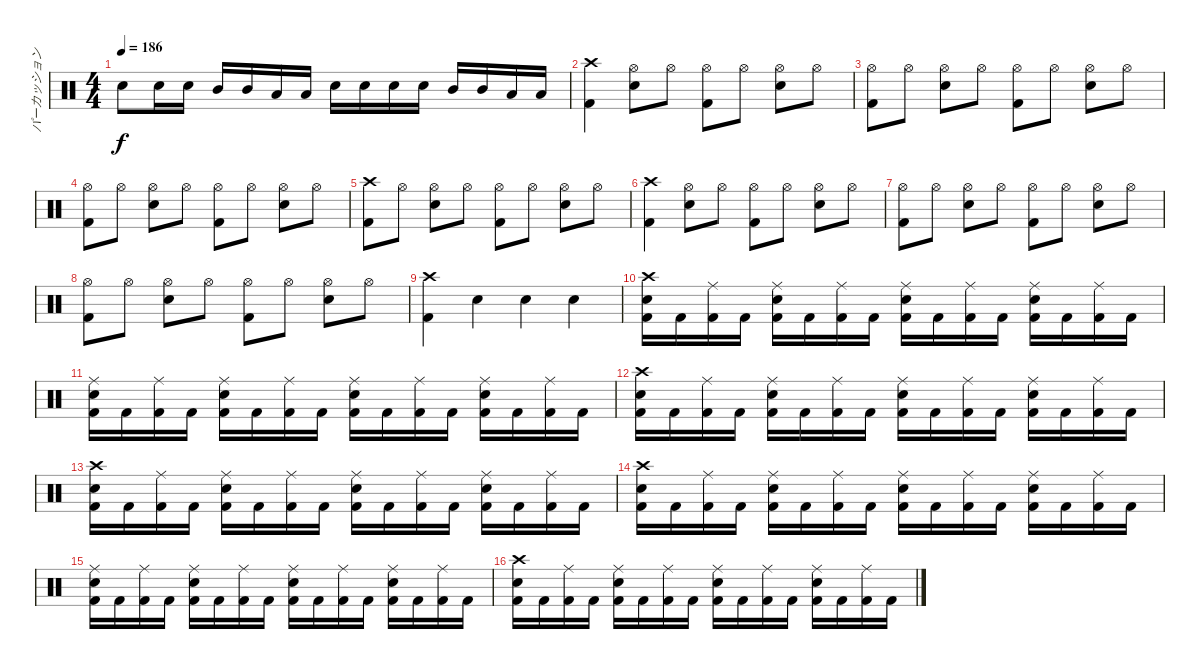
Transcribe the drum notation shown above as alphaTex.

\track ("パーカッション" "パーカッション") {instrument percussion}
\staff {score}
\articulation defaults
\ts (4 4)
\tempo 186
\clef neutral
\ks c "Snare (hit) 2".8{dy f} "Snare (hit) 2".16 "Snare (hit) 2".16 "Mid Tom (hit)".16 "Mid Tom (hit)".16 "Low Tom (hit)".16 "Low Tom (hit)".16 "Snare (hit) 2".16 "Snare (hit) 2".16 "Snare (hit) 2".16 "Snare (hit) 2".16 "Mid Tom (hit)".16 "Mid Tom (hit)".16 "Low Tom (hit)".16 "Low Tom (hit)".16
|
("Crash high (hit)" "Kick (hit) 2").4 ("Hi-Hat (open)" "Snare (hit) 2").8 "Hi-Hat (open)".8 ("Hi-Hat (open)" "Kick (hit) 2").8 "Hi-Hat (open)".8 ("Hi-Hat (open)" "Snare (hit) 2").8 "Hi-Hat (open)".8 |
("Hi-Hat (open)" "Kick (hit) 2").8 "Hi-Hat (open)".8 ("Hi-Hat (open)" "Snare (hit) 2").8 "Hi-Hat (open)".8 ("Hi-Hat (open)" "Kick (hit) 2").8 "Hi-Hat (open)".8 ("Hi-Hat (open)" "Snare (hit) 2").8 "Hi-Hat (open)".8 |
("Hi-Hat (open)" "Kick (hit) 2").8 "Hi-Hat (open)".8 ("Hi-Hat (open)" "Snare (hit) 2").8 "Hi-Hat (open)".8 ("Hi-Hat (open)" "Kick (hit) 2").8 "Hi-Hat (open)".8 ("Hi-Hat (open)" "Snare (hit) 2").8 "Hi-Hat (open)".8 |
("Crash high (hit)" "Kick (hit) 2").8 "Hi-Hat (open)".8 ("Hi-Hat (open)" "Snare (hit) 2").8 "Hi-Hat (open)".8 ("Hi-Hat (open)" "Kick (hit) 2").8 "Hi-Hat (open)".8 ("Hi-Hat (open)" "Snare (hit) 2").8 "Hi-Hat (open)".8 |
("Crash high (hit)" "Kick (hit) 2").4 ("Hi-Hat (open)" "Snare (hit) 2").8 "Hi-Hat (open)".8 ("Hi-Hat (open)" "Kick (hit) 2").8 "Hi-Hat (open)".8 ("Hi-Hat (open)" "Snare (hit) 2").8 "Hi-Hat (open)".8 |
("Hi-Hat (open)" "Kick (hit) 2").8 "Hi-Hat (open)".8 ("Hi-Hat (open)" "Snare (hit) 2").8 "Hi-Hat (open)".8 ("Hi-Hat (open)" "Kick (hit) 2").8 "Hi-Hat (open)".8 ("Hi-Hat (open)" "Snare (hit) 2").8 "Hi-Hat (open)".8 |
("Hi-Hat (open)" "Kick (hit) 2").8 "Hi-Hat (open)".8 ("Hi-Hat (open)" "Snare (hit) 2").8 "Hi-Hat (open)".8 ("Hi-Hat (open)" "Kick (hit) 2").8 "Hi-Hat (open)".8 ("Hi-Hat (open)" "Snare (hit) 2").8 "Hi-Hat (open)".8 |
("Crash high (hit)" "Kick (hit) 2").4 "Snare (hit) 2".4 "Snare (hit) 2".4 "Snare (hit) 2".4 |
("Crash high (hit)" "Snare (hit) 2" "Kick (hit) 2").16 "Kick (hit) 2".16 ("Ride (middle)" "Kick (hit) 2").16 "Kick (hit) 2".16 ("Ride (middle)" "Snare (hit) 2" "Kick (hit) 2").16 "Kick (hit) 2".16 ("Ride (middle)" "Kick (hit) 2").16 "Kick (hit) 2".16 ("Ride (middle)" "Snare (hit) 2" "Kick (hit) 2").16 "Kick (hit) 2".16 ("Ride (middle)" "Kick (hit) 2").16 "Kick (hit) 2".16 ("Ride (middle)" "Snare (hit) 2" "Kick (hit) 2").16 "Kick (hit) 2".16 ("Ride (middle)" "Kick (hit) 2").16 "Kick (hit) 2".16 |
("Ride (middle)" "Snare (hit) 2" "Kick (hit) 2").16 "Kick (hit) 2".16 ("Ride (middle)" "Kick (hit) 2").16 "Kick (hit) 2".16 ("Ride (middle)" "Snare (hit) 2" "Kick (hit) 2").16 "Kick (hit) 2".16 ("Ride (middle)" "Kick (hit) 2").16 "Kick (hit) 2".16 ("Ride (middle)" "Snare (hit) 2" "Kick (hit) 2").16 "Kick (hit) 2".16 ("Ride (middle)" "Kick (hit) 2").16 "Kick (hit) 2".16 ("Ride (middle)" "Snare (hit) 2" "Kick (hit) 2").16 "Kick (hit) 2".16 ("Ride (middle)" "Kick (hit) 2").16 "Kick (hit) 2".16 |
("Crash high (hit)" "Snare (hit) 2" "Kick (hit) 2").16 "Kick (hit) 2".16 ("Ride (middle)" "Kick (hit) 2").16 "Kick (hit) 2".16 ("Ride (middle)" "Snare (hit) 2" "Kick (hit) 2").16 "Kick (hit) 2".16 ("Ride (middle)" "Kick (hit) 2").16 "Kick (hit) 2".16 ("Ride (middle)" "Snare (hit) 2" "Kick (hit) 2").16 "Kick (hit) 2".16 ("Ride (middle)" "Kick (hit) 2").16 "Kick (hit) 2".16 ("Ride (middle)" "Snare (hit) 2" "Kick (hit) 2").16 "Kick (hit) 2".16 ("Ride (middle)" "Kick (hit) 2").16 "Kick (hit) 2".16 |
("Crash high (hit)" "Snare (hit) 2" "Kick (hit) 2").16 "Kick (hit) 2".16 ("Ride (middle)" "Kick (hit) 2").16 "Kick (hit) 2".16 ("Ride (middle)" "Snare (hit) 2" "Kick (hit) 2").16 "Kick (hit) 2".16 ("Ride (middle)" "Kick (hit) 2").16 "Kick (hit) 2".16 ("Ride (middle)" "Snare (hit) 2" "Kick (hit) 2").16 "Kick (hit) 2".16 ("Ride (middle)" "Kick (hit) 2").16 "Kick (hit) 2".16 ("Ride (middle)" "Snare (hit) 2" "Kick (hit) 2").16 "Kick (hit) 2".16 ("Ride (middle)" "Kick (hit) 2").16 "Kick (hit) 2".16 |
("Crash high (hit)" "Snare (hit) 2" "Kick (hit) 2").16 "Kick (hit) 2".16 ("Ride (middle)" "Kick (hit) 2").16 "Kick (hit) 2".16 ("Ride (middle)" "Snare (hit) 2" "Kick (hit) 2").16 "Kick (hit) 2".16 ("Ride (middle)" "Kick (hit) 2").16 "Kick (hit) 2".16 ("Ride (middle)" "Snare (hit) 2" "Kick (hit) 2").16 "Kick (hit) 2".16 ("Ride (middle)" "Kick (hit) 2").16 "Kick (hit) 2".16 ("Ride (middle)" "Snare (hit) 2" "Kick (hit) 2").16 "Kick (hit) 2".16 ("Ride (middle)" "Kick (hit) 2").16 "Kick (hit) 2".16 |
("Ride (middle)" "Snare (hit) 2" "Kick (hit) 2").16 "Kick (hit) 2".16 ("Ride (middle)" "Kick (hit) 2").16 "Kick (hit) 2".16 ("Ride (middle)" "Snare (hit) 2" "Kick (hit) 2").16 "Kick (hit) 2".16 ("Ride (middle)" "Kick (hit) 2").16 "Kick (hit) 2".16 ("Ride (middle)" "Snare (hit) 2" "Kick (hit) 2").16 "Kick (hit) 2".16 ("Ride (middle)" "Kick (hit) 2").16 "Kick (hit) 2".16 ("Ride (middle)" "Snare (hit) 2" "Kick (hit) 2").16 "Kick (hit) 2".16 ("Ride (middle)" "Kick (hit) 2").16 "Kick (hit) 2".16 |
("Crash high (hit)" "Snare (hit) 2" "Kick (hit) 2").16 "Kick (hit) 2".16 ("Ride (middle)" "Kick (hit) 2").16 "Kick (hit) 2".16 ("Ride (middle)" "Snare (hit) 2" "Kick (hit) 2").16 "Kick (hit) 2".16 ("Ride (middle)" "Kick (hit) 2").16 "Kick (hit) 2".16 ("Ride (middle)" "Snare (hit) 2" "Kick (hit) 2").16 "Kick (hit) 2".16 ("Ride (middle)" "Kick (hit) 2").16 "Kick (hit) 2".16 ("Ride (middle)" "Snare (hit) 2" "Kick (hit) 2").16 "Kick (hit) 2".16 ("Ride (middle)" "Kick (hit) 2").16 "Kick (hit) 2".16
